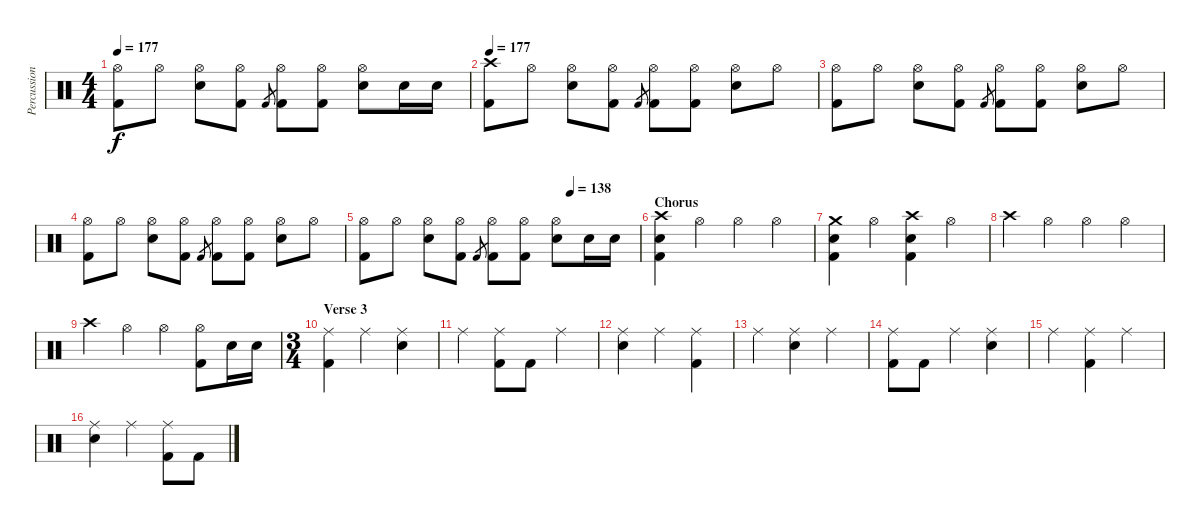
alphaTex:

\track ("Percussion" "Percussion") {instrument percussion}
\staff {score}
\articulation defaults
\ts (4 4)
\tempo 177
\clef neutral
\ks c
("Hi-Hat (open)" "Kick (hit) 2").8{dy f} "Hi-Hat (open)".8 ("Hi-Hat (open)" "Electric Snare (hit)").8 ("Hi-Hat (open)" "Kick (hit) 2").8 "Kick (hit) 2".8{gr} ("Hi-Hat (open)" "Kick (hit) 2").8 ("Hi-Hat (open)" "Kick (hit) 2").8 ("Hi-Hat (open)" "Electric Snare (hit)").8 "Electric Snare (hit)".16 "Electric Snare (hit)".16 |
\tempo 177
("Crash high (hit)" "Kick (hit) 2").8 "Hi-Hat (open)".8 ("Hi-Hat (open)" "Electric Snare (hit)").8 ("Hi-Hat (open)" "Kick (hit) 2").8 "Kick (hit) 2".8{gr} ("Hi-Hat (open)" "Kick (hit) 2").8 ("Hi-Hat (open)" "Kick (hit) 2").8 ("Hi-Hat (open)" "Electric Snare (hit)").8 "Hi-Hat (open)".8 |
("Hi-Hat (open)" "Kick (hit) 2").8 "Hi-Hat (open)".8 ("Hi-Hat (open)" "Electric Snare (hit)").8 ("Hi-Hat (open)" "Kick (hit) 2").8 "Kick (hit) 2".8{gr} ("Hi-Hat (open)" "Kick (hit) 2").8 ("Hi-Hat (open)" "Kick (hit) 2").8 ("Hi-Hat (open)" "Electric Snare (hit)").8 "Hi-Hat (open)".8 |
("Hi-Hat (open)" "Kick (hit) 2").8 "Hi-Hat (open)".8 ("Hi-Hat (open)" "Electric Snare (hit)").8 ("Hi-Hat (open)" "Kick (hit) 2").8 "Kick (hit) 2".8{gr} ("Hi-Hat (open)" "Kick (hit) 2").8 ("Hi-Hat (open)" "Kick (hit) 2").8 ("Hi-Hat (open)" "Electric Snare (hit)").8 "Hi-Hat (open)".8 |
\tempo (138 0.75)
("Hi-Hat (open)" "Kick (hit) 2").8 "Hi-Hat (open)".8 ("Hi-Hat (open)" "Electric Snare (hit)").8 ("Hi-Hat (open)" "Kick (hit) 2").8 "Kick (hit) 2".8{gr} ("Hi-Hat (open)" "Kick (hit) 2").8 ("Hi-Hat (open)" "Kick (hit) 2").8 ("Hi-Hat (open)" "Electric Snare (hit)").8 "Electric Snare (hit)".16 "Electric Snare (hit)".16 |
\section ("" "Chorus")
("Crash high (hit)" "Electric Snare (hit)" "Kick (hit) 2").4 "Hi-Hat (open)".4 "Hi-Hat (open)".4 "Hi-Hat (open)".4 |
("Crash medium (hit)" "Electric Snare (hit)" "Kick (hit) 2").4 "Hi-Hat (open)".4 ("Crash high (hit)" "Electric Snare (hit)" "Kick (hit) 2").4 "Hi-Hat (open)".4 |
"Crash high (hit)".4 "Hi-Hat (open)".4 "Hi-Hat (open)".4 "Hi-Hat (open)".4 |
"Crash high (hit)".4 "Hi-Hat (open)".4 "Hi-Hat (open)".4 ("Hi-Hat (open)" "Kick (hit) 2").8 "Electric Snare (hit)".16 "Electric Snare (hit)".16 |
\ts (3 4)
\section ("" "Verse 3")
("Ride (middle)" "Kick (hit) 2").4 "Ride (middle)".4 ("Ride (middle)" "Electric Snare (hit)").4 |
"Ride (middle)".4 ("Ride (middle)" "Kick (hit) 2").8 "Kick (hit) 2".8 "Ride (middle)".4 |
("Ride (middle)" "Electric Snare (hit)").4 "Ride (middle)".4 ("Ride (middle)" "Kick (hit) 2").4 |
"Ride (middle)".4 ("Ride (middle)" "Electric Snare (hit)").4 "Ride (middle)".4 |
("Ride (middle)" "Kick (hit) 2").8 "Kick (hit) 2".8 "Ride (middle)".4 ("Ride (middle)" "Electric Snare (hit)").4 |
"Ride (middle)".4 ("Ride (middle)" "Kick (hit) 2").4 "Ride (middle)".4 |
("Ride (middle)" "Electric Snare (hit)").4 "Ride (middle)".4 ("Ride (middle)" "Kick (hit) 2").8 "Kick (hit) 2".8
